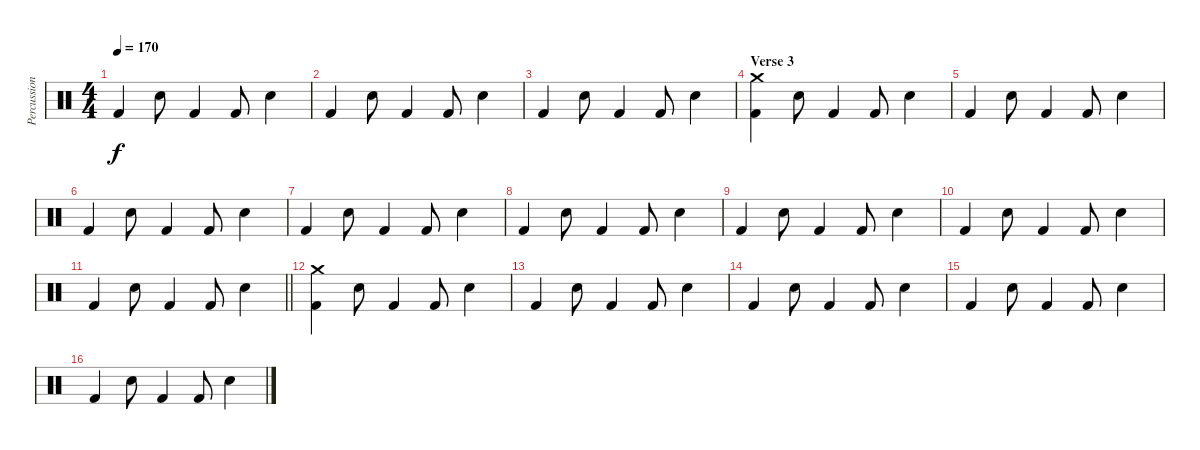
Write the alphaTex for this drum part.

\track ("Percussions" "Percussion") {instrument percussion}
\staff {score}
\articulation defaults
\ts (4 4)
\tempo 170
\clef neutral
\ks c "Kick (hit) 2".4{dy f} "Electric Snare (hit)".8 "Kick (hit) 2".4 "Kick (hit) 2".8 "Electric Snare (hit)".4
|
"Kick (hit) 2".4 "Electric Snare (hit)".8 "Kick (hit) 2".4 "Kick (hit) 2".8 "Electric Snare (hit)".4 |
"Kick (hit) 2".4 "Electric Snare (hit)".8 "Kick (hit) 2".4 "Kick (hit) 2".8 "Electric Snare (hit)".4 |
\section ("" "Verse 3")
("Crash medium (hit)" "Kick (hit) 2").4 "Electric Snare (hit)".8 "Kick (hit) 2".4 "Kick (hit) 2".8 "Electric Snare (hit)".4 |
"Kick (hit) 2".4 "Electric Snare (hit)".8 "Kick (hit) 2".4 "Kick (hit) 2".8 "Electric Snare (hit)".4 |
"Kick (hit) 2".4 "Electric Snare (hit)".8 "Kick (hit) 2".4 "Kick (hit) 2".8 "Electric Snare (hit)".4 |
"Kick (hit) 2".4 "Electric Snare (hit)".8 "Kick (hit) 2".4 "Kick (hit) 2".8 "Electric Snare (hit)".4 |
"Kick (hit) 2".4 "Electric Snare (hit)".8 "Kick (hit) 2".4 "Kick (hit) 2".8 "Electric Snare (hit)".4 |
"Kick (hit) 2".4 "Electric Snare (hit)".8 "Kick (hit) 2".4 "Kick (hit) 2".8 "Electric Snare (hit)".4 |
"Kick (hit) 2".4 "Electric Snare (hit)".8 "Kick (hit) 2".4 "Kick (hit) 2".8 "Electric Snare (hit)".4 |
\barLineRight lightlight "Kick (hit) 2".4 "Electric Snare (hit)".8 "Kick (hit) 2".4 "Kick (hit) 2".8 "Electric Snare (hit)".4
|
("Crash medium (hit)" "Kick (hit) 2").4 "Electric Snare (hit)".8 "Kick (hit) 2".4 "Kick (hit) 2".8 "Electric Snare (hit)".4 |
"Kick (hit) 2".4 "Electric Snare (hit)".8 "Kick (hit) 2".4 "Kick (hit) 2".8 "Electric Snare (hit)".4 |
"Kick (hit) 2".4 "Electric Snare (hit)".8 "Kick (hit) 2".4 "Kick (hit) 2".8 "Electric Snare (hit)".4 |
"Kick (hit) 2".4 "Electric Snare (hit)".8 "Kick (hit) 2".4 "Kick (hit) 2".8 "Electric Snare (hit)".4 |
"Kick (hit) 2".4 "Electric Snare (hit)".8 "Kick (hit) 2".4 "Kick (hit) 2".8 "Electric Snare (hit)".4
